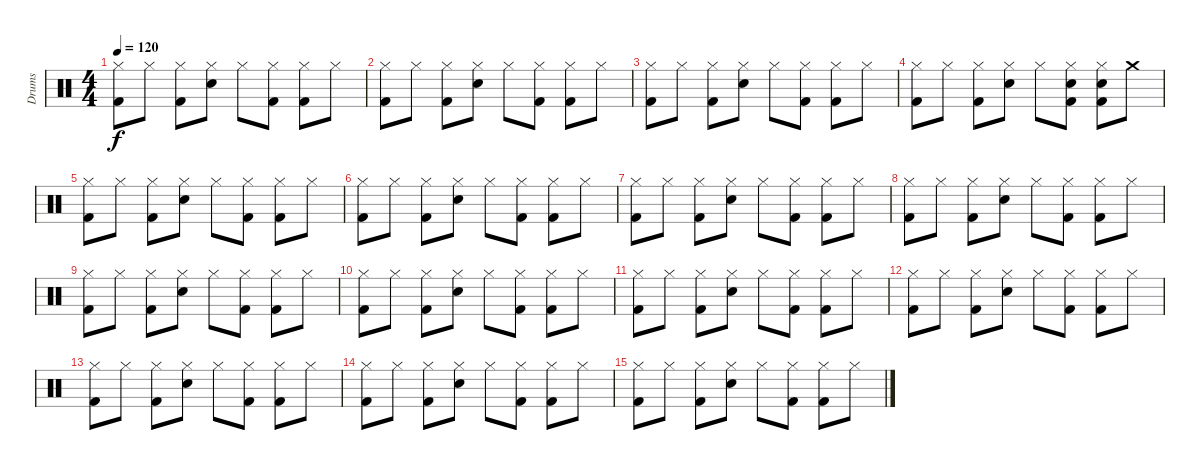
\track ("Drums" "Drums") {instrument percussion}
\staff {score}
\articulation defaults
\ts (4 4)
\tempo 120
\clef neutral
\ks c
("Hi-Hat (closed)" "Kick (hit) 2").8{dy f} "Hi-Hat (closed)".8 ("Hi-Hat (closed)" "Kick (hit) 2").8 ("Hi-Hat (closed)" "Electric Snare (hit)").8 "Hi-Hat (closed)".8 ("Hi-Hat (closed)" "Kick (hit) 2").8 ("Hi-Hat (closed)" "Kick (hit) 2").8 "Hi-Hat (closed)".8 |
("Hi-Hat (closed)" "Kick (hit) 2").8 "Hi-Hat (closed)".8 ("Hi-Hat (closed)" "Kick (hit) 2").8 ("Hi-Hat (closed)" "Electric Snare (hit)").8 "Hi-Hat (closed)".8 ("Hi-Hat (closed)" "Kick (hit) 2").8 ("Hi-Hat (closed)" "Kick (hit) 2").8 "Hi-Hat (closed)".8 |
("Hi-Hat (closed)" "Kick (hit) 2").8 "Hi-Hat (closed)".8 ("Hi-Hat (closed)" "Kick (hit) 2").8 ("Hi-Hat (closed)" "Electric Snare (hit)").8 "Hi-Hat (closed)".8 ("Hi-Hat (closed)" "Kick (hit) 2").8 ("Hi-Hat (closed)" "Kick (hit) 2").8 "Hi-Hat (closed)".8 |
("Hi-Hat (closed)" "Kick (hit) 2").8 "Hi-Hat (closed)".8 ("Hi-Hat (closed)" "Kick (hit) 2").8 ("Hi-Hat (closed)" "Electric Snare (hit)").8 "Hi-Hat (closed)".8 ("Hi-Hat (closed)" "Electric Snare (hit)" "Kick (hit) 2").8 ("Hi-Hat (closed)" "Electric Snare (hit)" "Kick (hit) 2").8 "Crash medium (hit)".8 |
("Hi-Hat (closed)" "Kick (hit) 2").8 "Hi-Hat (closed)".8 ("Hi-Hat (closed)" "Kick (hit) 2").8 ("Hi-Hat (closed)" "Electric Snare (hit)").8 "Hi-Hat (closed)".8 ("Hi-Hat (closed)" "Kick (hit) 2").8 ("Hi-Hat (closed)" "Kick (hit) 2").8 "Hi-Hat (closed)".8 |
("Hi-Hat (closed)" "Kick (hit) 2").8 "Hi-Hat (closed)".8 ("Hi-Hat (closed)" "Kick (hit) 2").8 ("Hi-Hat (closed)" "Electric Snare (hit)").8 "Hi-Hat (closed)".8 ("Hi-Hat (closed)" "Kick (hit) 2").8 ("Hi-Hat (closed)" "Kick (hit) 2").8 "Hi-Hat (closed)".8 |
("Hi-Hat (closed)" "Kick (hit) 2").8 "Hi-Hat (closed)".8 ("Hi-Hat (closed)" "Kick (hit) 2").8 ("Hi-Hat (closed)" "Electric Snare (hit)").8 "Hi-Hat (closed)".8 ("Hi-Hat (closed)" "Kick (hit) 2").8 ("Hi-Hat (closed)" "Kick (hit) 2").8 "Hi-Hat (closed)".8 |
("Hi-Hat (closed)" "Kick (hit) 2").8{volume 12} "Hi-Hat (closed)".8 ("Hi-Hat (closed)" "Kick (hit) 2").8 ("Hi-Hat (closed)" "Electric Snare (hit)").8 "Hi-Hat (closed)".8 ("Hi-Hat (closed)" "Kick (hit) 2").8 ("Hi-Hat (closed)" "Kick (hit) 2").8 "Hi-Hat (closed)".8 |
("Hi-Hat (closed)" "Kick (hit) 2").8{volume 10} "Hi-Hat (closed)".8 ("Hi-Hat (closed)" "Kick (hit) 2").8 ("Hi-Hat (closed)" "Electric Snare (hit)").8 "Hi-Hat (closed)".8 ("Hi-Hat (closed)" "Kick (hit) 2").8 ("Hi-Hat (closed)" "Kick (hit) 2").8 "Hi-Hat (closed)".8 |
("Hi-Hat (closed)" "Kick (hit) 2").8{volume 9} "Hi-Hat (closed)".8 ("Hi-Hat (closed)" "Kick (hit) 2").8 ("Hi-Hat (closed)" "Electric Snare (hit)").8 "Hi-Hat (closed)".8 ("Hi-Hat (closed)" "Kick (hit) 2").8 ("Hi-Hat (closed)" "Kick (hit) 2").8 "Hi-Hat (closed)".8 |
("Hi-Hat (closed)" "Kick (hit) 2").8{volume 8} "Hi-Hat (closed)".8 ("Hi-Hat (closed)" "Kick (hit) 2").8 ("Hi-Hat (closed)" "Electric Snare (hit)").8 "Hi-Hat (closed)".8 ("Hi-Hat (closed)" "Kick (hit) 2").8 ("Hi-Hat (closed)" "Kick (hit) 2").8 "Hi-Hat (closed)".8 |
("Hi-Hat (closed)" "Kick (hit) 2").8{volume 7} "Hi-Hat (closed)".8 ("Hi-Hat (closed)" "Kick (hit) 2").8 ("Hi-Hat (closed)" "Electric Snare (hit)").8 "Hi-Hat (closed)".8 ("Hi-Hat (closed)" "Kick (hit) 2").8 ("Hi-Hat (closed)" "Kick (hit) 2").8 "Hi-Hat (closed)".8 |
("Hi-Hat (closed)" "Kick (hit) 2").8{volume 4} "Hi-Hat (closed)".8 ("Hi-Hat (closed)" "Kick (hit) 2").8 ("Hi-Hat (closed)" "Electric Snare (hit)").8 "Hi-Hat (closed)".8 ("Hi-Hat (closed)" "Kick (hit) 2").8 ("Hi-Hat (closed)" "Kick (hit) 2").8 "Hi-Hat (closed)".8 |
("Hi-Hat (closed)" "Kick (hit) 2").8{volume 2} "Hi-Hat (closed)".8 ("Hi-Hat (closed)" "Kick (hit) 2").8 ("Hi-Hat (closed)" "Electric Snare (hit)").8 "Hi-Hat (closed)".8 ("Hi-Hat (closed)" "Kick (hit) 2").8 ("Hi-Hat (closed)" "Kick (hit) 2").8 "Hi-Hat (closed)".8 |
("Hi-Hat (closed)" "Kick (hit) 2").8{volume 1} "Hi-Hat (closed)".8 ("Hi-Hat (closed)" "Kick (hit) 2").8 ("Hi-Hat (closed)" "Electric Snare (hit)").8 "Hi-Hat (closed)".8 ("Hi-Hat (closed)" "Kick (hit) 2").8 ("Hi-Hat (closed)" "Kick (hit) 2").8 "Hi-Hat (closed)".8
